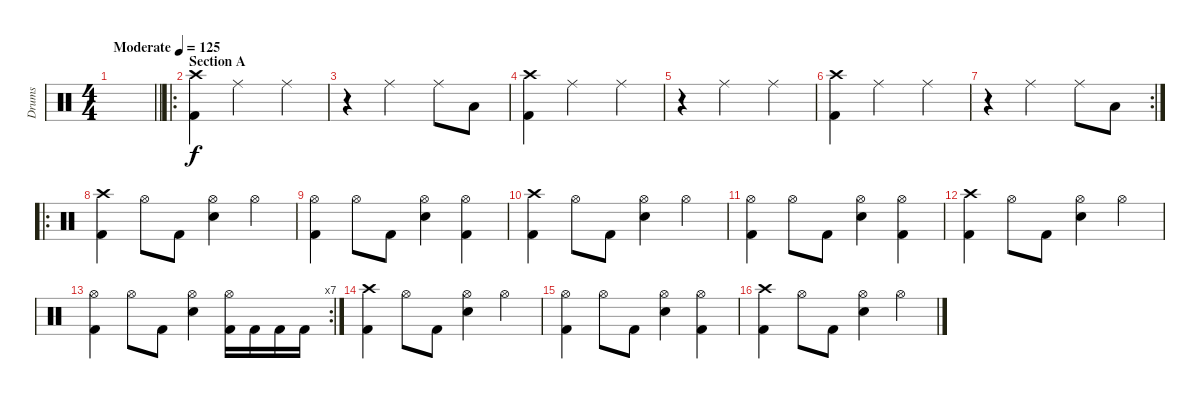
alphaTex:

\track ("Drums" "Drums") {instrument percussion}
\staff {score}
\articulation defaults
\ts (4 4)
\tempo (125 "Moderate")
\clef neutral
\barLineRight lightlight
\ks c
|
\ro
\section ("" "Section A")
("Crash high (hit)" "Kick (hit) 2").4 "Ride (middle)".2 "Ride (middle)".4 |
r.4 "Ride (middle)".2 "Ride (middle)".8 "Low Floor Tom (hit)".8 |
("Crash high (hit)" "Kick (hit) 2").4 "Ride (middle)".2 "Ride (middle)".4 |
r.4 "Ride (middle)".2 "Ride (middle)".4 |
("Crash high (hit)" "Kick (hit) 2").4 "Ride (middle)".2 "Ride (middle)".4 |
\rc 2
r.4 "Ride (middle)".2 "Ride (middle)".8 "Low Floor Tom (hit)".8 |
\ro
("Crash high (hit)" "Kick (hit) 2").4 "Hi-Hat (open)".8 "Kick (hit) 2".8 ("Hi-Hat (open)" "Snare (hit) 2").4 "Hi-Hat (open)".4 |
("Hi-Hat (open)" "Kick (hit) 2").4 "Hi-Hat (open)".8 "Kick (hit) 2".8 ("Hi-Hat (open)" "Snare (hit) 2").4 ("Hi-Hat (open)" "Kick (hit) 2").4 |
("Crash high (hit)" "Kick (hit) 2").4 "Hi-Hat (open)".8 "Kick (hit) 2".8 ("Hi-Hat (open)" "Snare (hit) 2").4 "Hi-Hat (open)".4 |
("Hi-Hat (open)" "Kick (hit) 2").4 "Hi-Hat (open)".8 "Kick (hit) 2".8 ("Hi-Hat (open)" "Snare (hit) 2").4 ("Hi-Hat (open)" "Kick (hit) 2").4 |
("Crash high (hit)" "Kick (hit) 2").4 "Hi-Hat (open)".8 "Kick (hit) 2".8 ("Hi-Hat (open)" "Snare (hit) 2").4 "Hi-Hat (open)".4 |
\rc 7
("Hi-Hat (open)" "Kick (hit) 2").4 "Hi-Hat (open)".8 "Kick (hit) 2".8 ("Hi-Hat (open)" "Snare (hit) 2").4 ("Hi-Hat (open)" "Kick (hit) 2").16 "Kick (hit) 2".16 "Kick (hit) 2".16 "Kick (hit) 2".16 |
("Crash high (hit)" "Kick (hit) 2").4 "Hi-Hat (open)".8 "Kick (hit) 2".8 ("Hi-Hat (open)" "Snare (hit) 2").4 "Hi-Hat (open)".4 |
("Hi-Hat (open)" "Kick (hit) 2").4 "Hi-Hat (open)".8 "Kick (hit) 2".8 ("Hi-Hat (open)" "Snare (hit) 2").4 ("Hi-Hat (open)" "Kick (hit) 2").4 |
("Crash high (hit)" "Kick (hit) 2").4 "Hi-Hat (open)".8 "Kick (hit) 2".8 ("Hi-Hat (open)" "Snare (hit) 2").4 "Hi-Hat (open)".4
